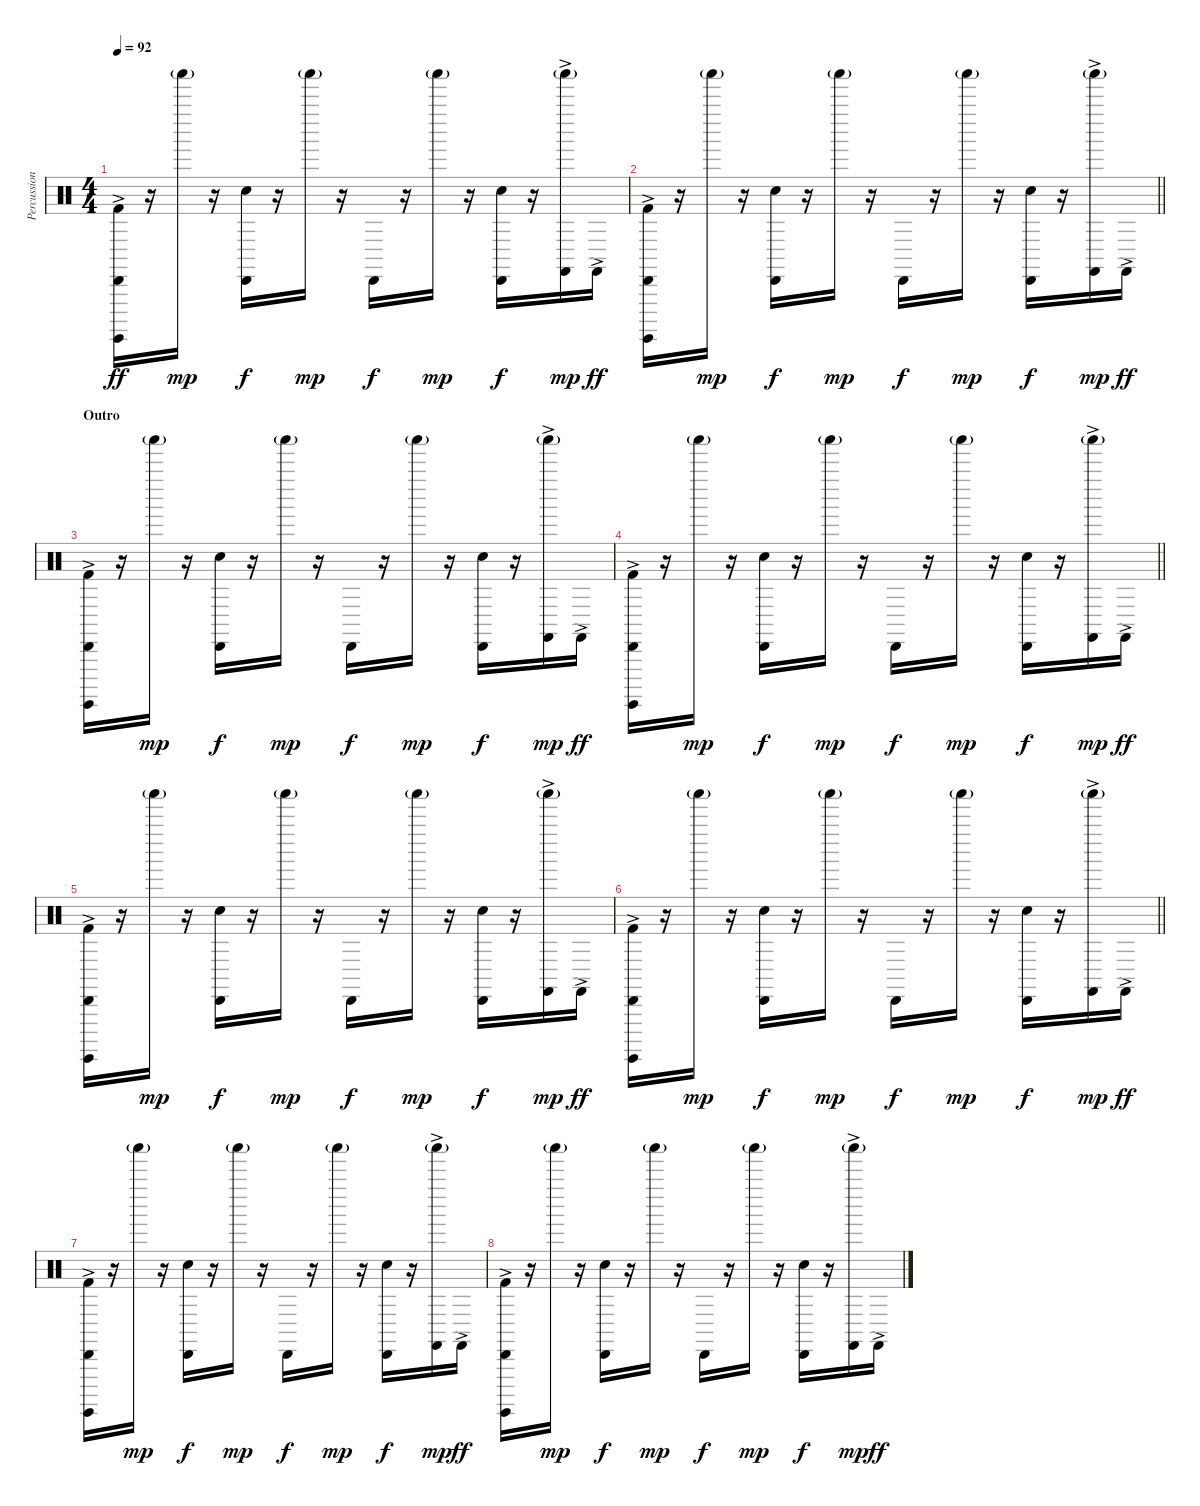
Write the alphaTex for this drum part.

\track ("Percussion" "Percussion") {instrument percussion}
\staff {score}
\articulation defaults
\ts (4 4)
\tempo 92
\clef neutral
\ks c
("Kick (hit) 2" "Surdo (hit)"{ac} "Cabasa (hit)").16{dy ff} r.16 "Shaker (hit)"{g}.16{dy mp} r.16 ("Snare (hit) 2" "Cabasa (hit)").16{dy f} r.16 "Shaker (hit)"{g}.16{dy mp} r.16 "Cabasa (hit)".16{dy f} r.16 "Shaker (hit)"{g}.16{dy mp} r.16 ("Snare (hit) 2" "Cabasa (hit)").16{dy f} r.16 ("Castanets (hit)"{ac} "Shaker (hit)"{g}).16{dy mp} "Castanets (hit)"{ac}.16{dy ff} |
\barLineRight lightlight
("Kick (hit) 2" "Surdo (hit)"{ac} "Cabasa (hit)").16 r.16 "Shaker (hit)"{g}.16{dy mp} r.16 ("Snare (hit) 2" "Cabasa (hit)").16{dy f} r.16 "Shaker (hit)"{g}.16{dy mp} r.16 "Cabasa (hit)".16{dy f} r.16 "Shaker (hit)"{g}.16{dy mp} r.16 ("Snare (hit) 2" "Cabasa (hit)").16{dy f} r.16 ("Castanets (hit)"{ac} "Shaker (hit)"{g}).16{dy mp} "Castanets (hit)"{ac}.16{dy ff} |
\section ("" "Outro")
("Kick (hit) 2" "Surdo (hit)"{ac} "Cabasa (hit)").16 r.16 "Shaker (hit)"{g}.16{dy mp} r.16 ("Snare (hit) 2" "Cabasa (hit)").16{dy f} r.16 "Shaker (hit)"{g}.16{dy mp} r.16 "Cabasa (hit)".16{dy f} r.16 "Shaker (hit)"{g}.16{dy mp} r.16 ("Snare (hit) 2" "Cabasa (hit)").16{dy f} r.16 ("Castanets (hit)"{ac} "Shaker (hit)"{g}).16{dy mp} "Castanets (hit)"{ac}.16{dy ff} |
\barLineRight lightlight
("Kick (hit) 2" "Surdo (hit)"{ac} "Cabasa (hit)").16 r.16 "Shaker (hit)"{g}.16{dy mp} r.16 ("Snare (hit) 2" "Cabasa (hit)").16{dy f} r.16 "Shaker (hit)"{g}.16{dy mp} r.16 "Cabasa (hit)".16{dy f} r.16 "Shaker (hit)"{g}.16{dy mp} r.16 ("Snare (hit) 2" "Cabasa (hit)").16{dy f} r.16 ("Castanets (hit)"{ac} "Shaker (hit)"{g}).16{dy mp} "Castanets (hit)"{ac}.16{dy ff} |
("Kick (hit) 2" "Surdo (hit)"{ac} "Cabasa (hit)").16 r.16 "Shaker (hit)"{g}.16{dy mp} r.16 ("Snare (hit) 2" "Cabasa (hit)").16{dy f} r.16 "Shaker (hit)"{g}.16{dy mp} r.16 "Cabasa (hit)".16{dy f} r.16 "Shaker (hit)"{g}.16{dy mp} r.16 ("Snare (hit) 2" "Cabasa (hit)").16{dy f} r.16 ("Castanets (hit)"{ac} "Shaker (hit)"{g}).16{dy mp} "Castanets (hit)"{ac}.16{dy ff} |
\barLineRight lightlight
("Kick (hit) 2" "Surdo (hit)"{ac} "Cabasa (hit)").16 r.16 "Shaker (hit)"{g}.16{dy mp} r.16 ("Snare (hit) 2" "Cabasa (hit)").16{dy f} r.16 "Shaker (hit)"{g}.16{dy mp} r.16 "Cabasa (hit)".16{dy f} r.16 "Shaker (hit)"{g}.16{dy mp} r.16 ("Snare (hit) 2" "Cabasa (hit)").16{dy f} r.16 ("Castanets (hit)"{ac} "Shaker (hit)"{g}).16{dy mp} "Castanets (hit)"{ac}.16{dy ff} |
("Kick (hit) 2" "Surdo (hit)"{ac} "Cabasa (hit)").16 r.16 "Shaker (hit)"{g}.16{dy mp} r.16 ("Snare (hit) 2" "Cabasa (hit)").16{dy f} r.16 "Shaker (hit)"{g}.16{dy mp} r.16 "Cabasa (hit)".16{dy f} r.16 "Shaker (hit)"{g}.16{dy mp} r.16 ("Snare (hit) 2" "Cabasa (hit)").16{dy f} r.16 ("Castanets (hit)"{ac} "Shaker (hit)"{g}).16{dy mp} "Castanets (hit)"{ac}.16{dy ff} |
("Kick (hit) 2" "Surdo (hit)"{ac} "Cabasa (hit)").16 r.16 "Shaker (hit)"{g}.16{dy mp} r.16 ("Snare (hit) 2" "Cabasa (hit)").16{dy f} r.16 "Shaker (hit)"{g}.16{dy mp} r.16 "Cabasa (hit)".16{dy f} r.16 "Shaker (hit)"{g}.16{dy mp} r.16 ("Snare (hit) 2" "Cabasa (hit)").16{dy f} r.16 ("Castanets (hit)"{ac} "Shaker (hit)"{g}).16{dy mp} "Castanets (hit)"{ac}.16{dy ff}
